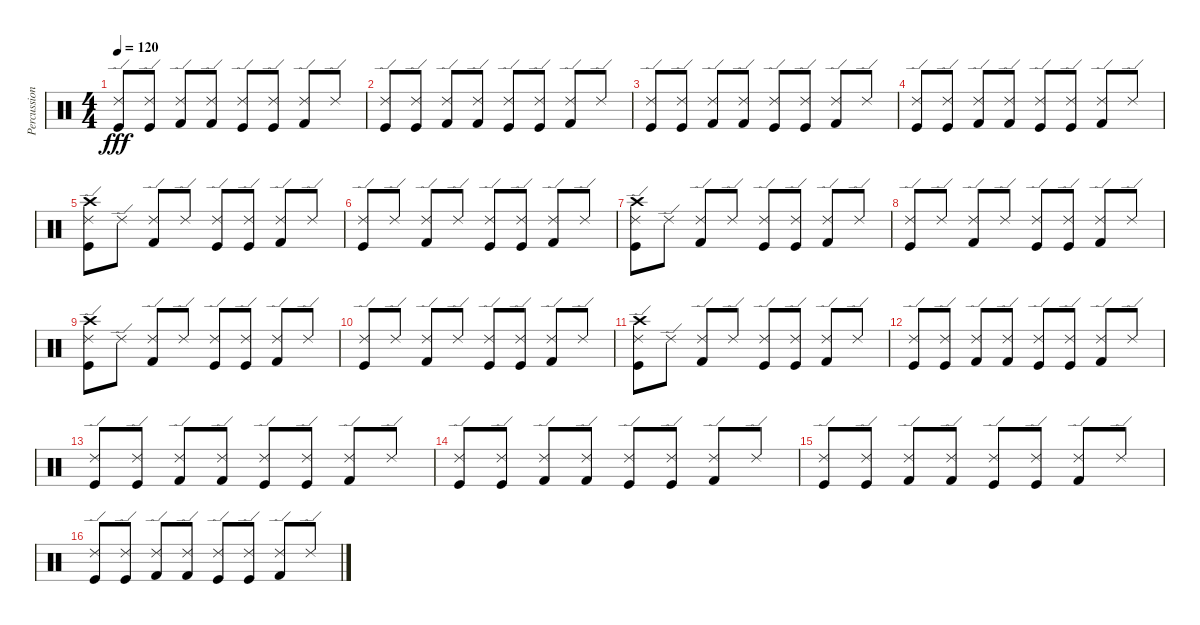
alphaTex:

\track ("Percussion" "Percussion") {instrument percussion}
\staff {score}
\articulation defaults
\ts (4 4)
\tempo 120
\clef neutral
\ks c
("Kick (hit)" "Ride (edge) 2").8{dy fff} ("Kick (hit)" "Ride (edge) 2").8 ("Kick (hit) 2" "Ride (edge) 2").8 ("Kick (hit) 2" "Ride (edge) 2").8 ("Kick (hit)" "Ride (edge) 2").8 ("Kick (hit)" "Ride (edge) 2").8 ("Kick (hit) 2" "Ride (edge) 2").8 "Ride (edge) 2".8 |
("Kick (hit)" "Ride (edge) 2").8 ("Kick (hit)" "Ride (edge) 2").8 ("Kick (hit) 2" "Ride (edge) 2").8 ("Kick (hit) 2" "Ride (edge) 2").8 ("Kick (hit)" "Ride (edge) 2").8 ("Kick (hit)" "Ride (edge) 2").8 ("Kick (hit) 2" "Ride (edge) 2").8 "Ride (edge) 2".8 |
("Kick (hit)" "Ride (edge) 2").8 ("Kick (hit)" "Ride (edge) 2").8 ("Kick (hit) 2" "Ride (edge) 2").8 ("Kick (hit) 2" "Ride (edge) 2").8 ("Kick (hit)" "Ride (edge) 2").8 ("Kick (hit)" "Ride (edge) 2").8 ("Kick (hit) 2" "Ride (edge) 2").8 "Ride (edge) 2".8 |
("Kick (hit)" "Ride (edge) 2").8 ("Kick (hit)" "Ride (edge) 2").8 ("Kick (hit) 2" "Ride (edge) 2").8 ("Kick (hit) 2" "Ride (edge) 2").8 ("Kick (hit)" "Ride (edge) 2").8 ("Kick (hit)" "Ride (edge) 2").8 ("Kick (hit) 2" "Ride (edge) 2").8 "Ride (edge) 2".8 |
("Kick (hit)" "Crash high (hit)" "Ride (edge) 2").8 "Ride (edge) 2".8 ("Kick (hit) 2" "Ride (edge) 2").8 "Ride (edge) 2".8 ("Kick (hit)" "Ride (edge) 2").8 ("Kick (hit)" "Ride (edge) 2").8 ("Kick (hit) 2" "Ride (edge) 2").8 "Ride (edge) 2".8 |
("Kick (hit)" "Ride (edge) 2").8 "Ride (edge) 2".8 ("Kick (hit) 2" "Ride (edge) 2").8 "Ride (edge) 2".8 ("Kick (hit)" "Ride (edge) 2").8 ("Kick (hit)" "Ride (edge) 2").8 ("Kick (hit) 2" "Ride (edge) 2").8 "Ride (edge) 2".8 |
("Kick (hit)" "Crash high (hit)" "Ride (edge) 2").8 "Ride (edge) 2".8 ("Kick (hit) 2" "Ride (edge) 2").8 "Ride (edge) 2".8 ("Kick (hit)" "Ride (edge) 2").8 ("Kick (hit)" "Ride (edge) 2").8 ("Kick (hit) 2" "Ride (edge) 2").8 "Ride (edge) 2".8 |
("Kick (hit)" "Ride (edge) 2").8 "Ride (edge) 2".8 ("Kick (hit) 2" "Ride (edge) 2").8 "Ride (edge) 2".8 ("Kick (hit)" "Ride (edge) 2").8 ("Kick (hit)" "Ride (edge) 2").8 ("Kick (hit) 2" "Ride (edge) 2").8 "Ride (edge) 2".8 |
("Kick (hit)" "Crash high (hit)" "Ride (edge) 2").8 "Ride (edge) 2".8 ("Kick (hit) 2" "Ride (edge) 2").8 "Ride (edge) 2".8 ("Kick (hit)" "Ride (edge) 2").8 ("Kick (hit)" "Ride (edge) 2").8 ("Kick (hit) 2" "Ride (edge) 2").8 "Ride (edge) 2".8 |
("Kick (hit)" "Ride (edge) 2").8 "Ride (edge) 2".8 ("Kick (hit) 2" "Ride (edge) 2").8 "Ride (edge) 2".8 ("Kick (hit)" "Ride (edge) 2").8 ("Kick (hit)" "Ride (edge) 2").8 ("Kick (hit) 2" "Ride (edge) 2").8 "Ride (edge) 2".8 |
("Kick (hit)" "Crash high (hit)" "Ride (edge) 2").8 "Ride (edge) 2".8 ("Kick (hit) 2" "Ride (edge) 2").8 "Ride (edge) 2".8 ("Kick (hit)" "Ride (edge) 2").8 ("Kick (hit)" "Ride (edge) 2").8 ("Kick (hit) 2" "Ride (edge) 2").8 "Ride (edge) 2".8 |
("Kick (hit)" "Ride (edge) 2").8 ("Kick (hit)" "Ride (edge) 2").8 ("Kick (hit) 2" "Ride (edge) 2").8 ("Kick (hit) 2" "Ride (edge) 2").8 ("Kick (hit)" "Ride (edge) 2").8 ("Kick (hit)" "Ride (edge) 2").8 ("Kick (hit) 2" "Ride (edge) 2").8 "Ride (edge) 2".8 |
("Kick (hit)" "Ride (edge) 2").8 ("Kick (hit)" "Ride (edge) 2").8 ("Kick (hit) 2" "Ride (edge) 2").8 ("Kick (hit) 2" "Ride (edge) 2").8 ("Kick (hit)" "Ride (edge) 2").8 ("Kick (hit)" "Ride (edge) 2").8 ("Kick (hit) 2" "Ride (edge) 2").8 "Ride (edge) 2".8 |
("Kick (hit)" "Ride (edge) 2").8 ("Kick (hit)" "Ride (edge) 2").8 ("Kick (hit) 2" "Ride (edge) 2").8 ("Kick (hit) 2" "Ride (edge) 2").8 ("Kick (hit)" "Ride (edge) 2").8 ("Kick (hit)" "Ride (edge) 2").8 ("Kick (hit) 2" "Ride (edge) 2").8 "Ride (edge) 2".8 |
("Kick (hit)" "Ride (edge) 2").8 ("Kick (hit)" "Ride (edge) 2").8 ("Kick (hit) 2" "Ride (edge) 2").8 ("Kick (hit) 2" "Ride (edge) 2").8 ("Kick (hit)" "Ride (edge) 2").8 ("Kick (hit)" "Ride (edge) 2").8 ("Kick (hit) 2" "Ride (edge) 2").8 "Ride (edge) 2".8 |
("Kick (hit)" "Ride (edge) 2").8 ("Kick (hit)" "Ride (edge) 2").8 ("Kick (hit) 2" "Ride (edge) 2").8 ("Kick (hit) 2" "Ride (edge) 2").8 ("Kick (hit)" "Ride (edge) 2").8 ("Kick (hit)" "Ride (edge) 2").8 ("Kick (hit) 2" "Ride (edge) 2").8 "Ride (edge) 2".8
